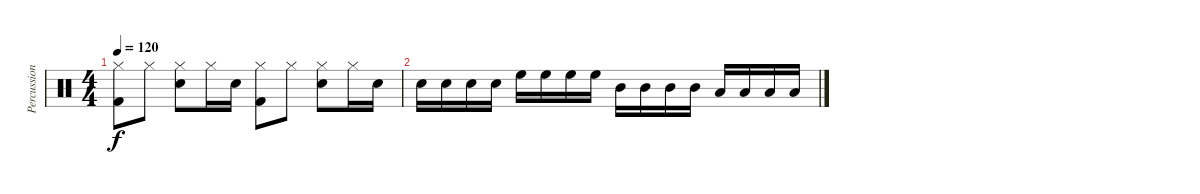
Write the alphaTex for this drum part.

\track ("Percussion" "Percussion") {instrument percussion}
\staff {score}
\articulation defaults
\ts (4 4)
\tempo 120
\clef neutral
\ks c
("Hi-Hat (closed)" "Kick (hit) 2").8{dy f} "Hi-Hat (closed)".8 ("Electric Snare (hit)" "Hi-Hat (closed)").8 "Hi-Hat (closed)".16 "Electric Snare (hit)".16 ("Hi-Hat (closed)" "Kick (hit) 2").8 "Hi-Hat (closed)".8 ("Electric Snare (hit)" "Hi-Hat (closed)").8 "Hi-Hat (closed)".16 "Electric Snare (hit)".16 |
"Electric Snare (hit)".16 "Electric Snare (hit)".16 "Electric Snare (hit)".16 "Electric Snare (hit)".16 "High Floor Tom (hit)".16 "High Floor Tom (hit)".16 "High Floor Tom (hit)".16 "High Floor Tom (hit)".16 "Mid Tom (hit)".16 "Mid Tom (hit)".16 "Mid Tom (hit)".16 "Mid Tom (hit)".16 "Low Tom (hit)".16 "Low Tom (hit)".16 "Low Tom (hit)".16 "Low Tom (hit)".16
